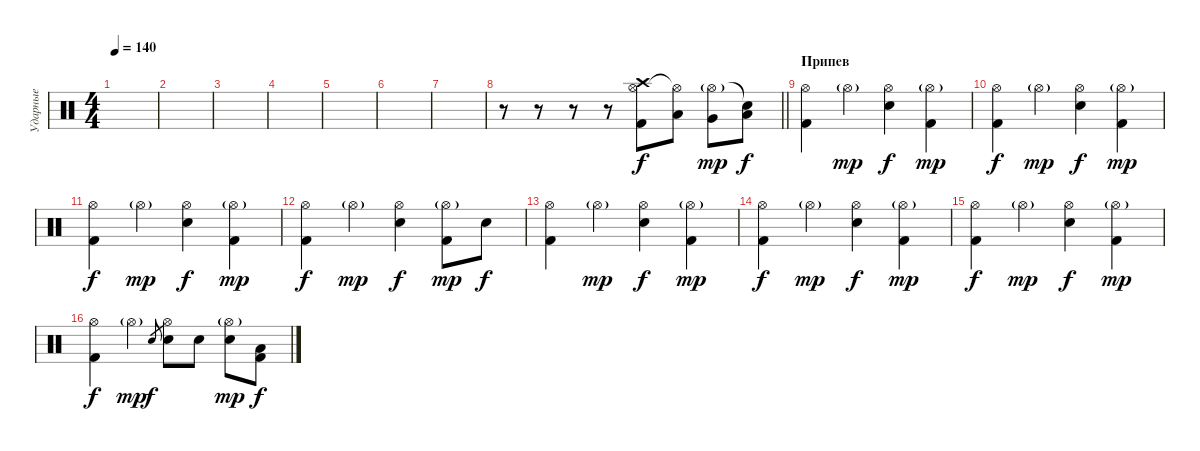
\track ("Ударные" "Ударные") {instrument percussion}
\staff {score}
\articulation defaults
\ts (4 4)
\tempo 140
\clef neutral
\ks c
|
|
|
|
|
|
|
\barLineRight lightlight
r.8 r.8 r.8 r.8 ("Hi-Hat (open)" "Crash high (hit)" "Kick (hit) 2").8 ("Hi-Hat (open)"{t} "Low Floor Tom (hit)").8 ("Hi-Hat (open)"{g} "Very Low Tom (hit)").8{dy mp} ("Snare (hit)"{t} "Low Tom (hit)").8{dy f} |
\section ("" "Припев")
("Hi-Hat (open)" "Kick (hit) 2").4 "Hi-Hat (open)"{g}.4{dy mp} ("Hi-Hat (open)" "Electric Snare (hit)").4{dy f} ("Hi-Hat (open)"{g} "Kick (hit) 2").4{dy mp} |
("Hi-Hat (open)" "Kick (hit) 2").4{dy f} "Hi-Hat (open)"{g}.4{dy mp} ("Hi-Hat (open)" "Electric Snare (hit)").4{dy f} ("Hi-Hat (open)"{g} "Kick (hit) 2").4{dy mp} |
("Hi-Hat (open)" "Kick (hit) 2").4{dy f} "Hi-Hat (open)"{g}.4{dy mp} ("Hi-Hat (open)" "Electric Snare (hit)").4{dy f} ("Hi-Hat (open)"{g} "Kick (hit) 2").4{dy mp} |
("Hi-Hat (open)" "Kick (hit) 2").4{dy f} "Hi-Hat (open)"{g}.4{dy mp} ("Hi-Hat (open)" "Electric Snare (hit)").4{dy f} ("Hi-Hat (open)"{g} "Kick (hit) 2").8{dy mp} "Electric Snare (hit)".8{dy f} |
("Hi-Hat (open)" "Kick (hit) 2").4 "Hi-Hat (open)"{g}.4{dy mp} ("Hi-Hat (open)" "Electric Snare (hit)").4{dy f} ("Hi-Hat (open)"{g} "Kick (hit) 2").4{dy mp} |
("Hi-Hat (open)" "Kick (hit) 2").4{dy f} "Hi-Hat (open)"{g}.4{dy mp} ("Hi-Hat (open)" "Electric Snare (hit)").4{dy f} ("Hi-Hat (open)"{g} "Kick (hit) 2").4{dy mp} |
("Hi-Hat (open)" "Kick (hit) 2").4{dy f} "Hi-Hat (open)"{g}.4{dy mp} ("Hi-Hat (open)" "Electric Snare (hit)").4{dy f} ("Hi-Hat (open)"{g} "Kick (hit) 2").4{dy mp} |
("Hi-Hat (open)" "Kick (hit) 2").4{dy f} "Hi-Hat (open)"{g}.4{dy mp} "Electric Snare (hit)".8{gr dy f} ("Hi-Hat (open)" "Electric Snare (hit)").8 "Electric Snare (hit)".8 ("Hi-Hat (open)"{g} "Electric Snare (hit)").8{dy mp} ("Low Floor Tom (hit)" "Kick (hit) 2").8{dy f}
